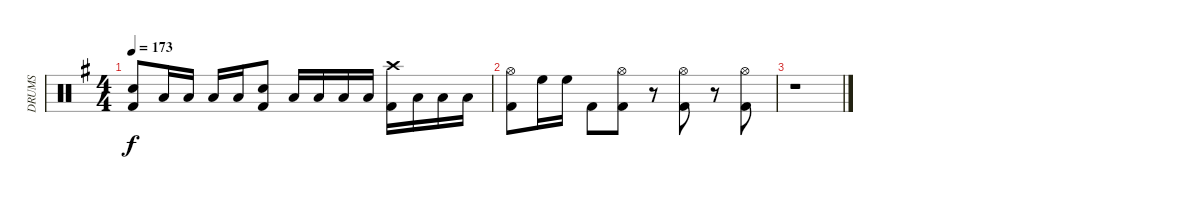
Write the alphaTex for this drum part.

\track ("DRUMS" "DRUMS") {instrument percussion}
\staff {score}
\articulation defaults
\ts (4 4)
\tempo 173
\clef neutral
\ks g
("Snare (hit) 2" "Kick (hit) 2").8{dy f} "Low Floor Tom (hit)".16 "Low Floor Tom (hit)".16 "Low Floor Tom (hit)".16 "Low Floor Tom (hit)".16 ("Snare (hit) 2" "Kick (hit) 2").8 "Low Floor Tom (hit)".16 "Low Floor Tom (hit)".16 "Low Floor Tom (hit)".16 "Low Floor Tom (hit)".16 ("Crash high (hit)" "Kick (hit) 2").16 "Low Floor Tom (hit)".16 "Low Floor Tom (hit)".16 "Low Floor Tom (hit)".16 |
("Hi-Hat (open)" "Kick (hit) 2").8 "High Floor Tom (hit)".16 "High Floor Tom (hit)".16 "Kick (hit) 2".8 ("Hi-Hat (open)" "Kick (hit) 2").8 r.8 ("Hi-Hat (open)" "Kick (hit) 2").8 r.8 ("Hi-Hat (open)" "Kick (hit) 2").8 |
r.1
